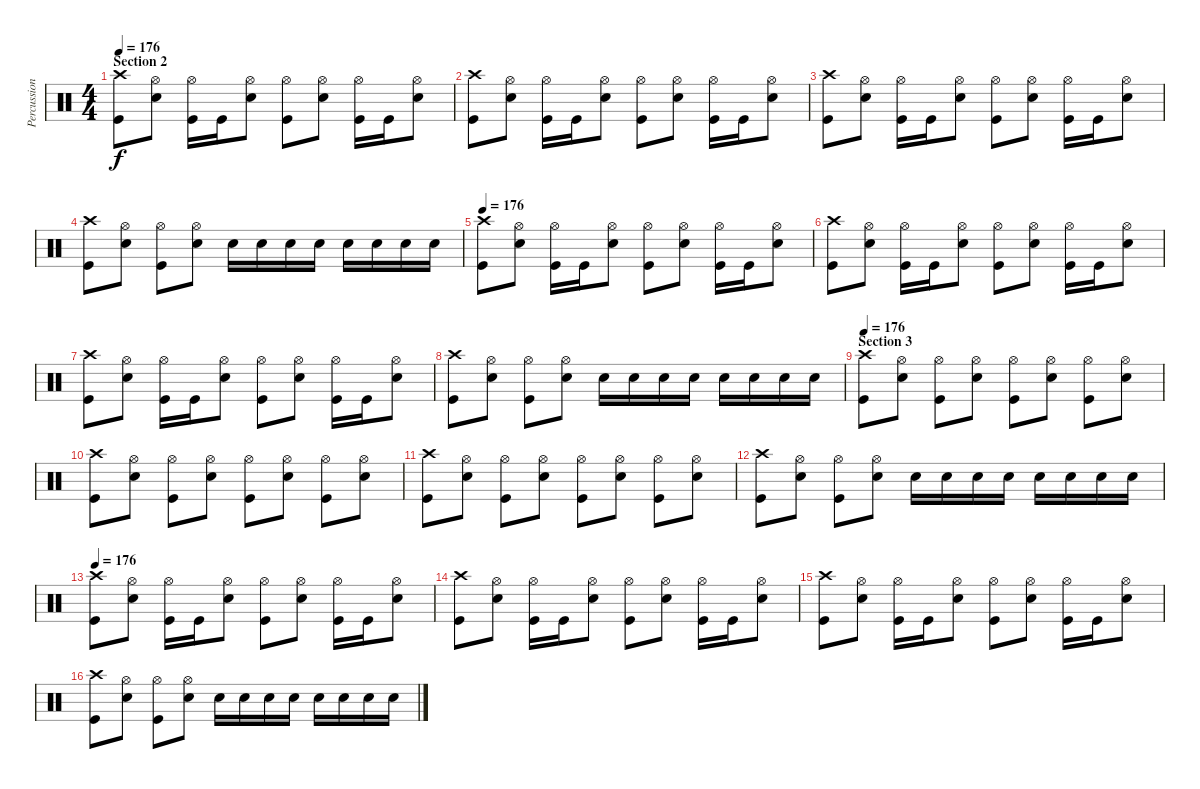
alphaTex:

\track ("Percussions" "Percussion") {instrument percussion}
\staff {score}
\articulation defaults
\ts (4 4)
\section ("" "Section 2")
\tempo 176
\clef neutral
\ks c
("Crash high (hit)" "Kick (hit)").8{dy f} ("Hi-Hat (open)" "Electric Snare (hit)").8 ("Hi-Hat (open)" "Kick (hit)").16 "Kick (hit)".16 ("Hi-Hat (open)" "Electric Snare (hit)").8 ("Hi-Hat (open)" "Kick (hit)").8 ("Hi-Hat (open)" "Electric Snare (hit)").8 ("Hi-Hat (open)" "Kick (hit)").16 "Kick (hit)".16 ("Hi-Hat (open)" "Electric Snare (hit)").8 |
("Crash high (hit)" "Kick (hit)").8 ("Hi-Hat (open)" "Electric Snare (hit)").8 ("Hi-Hat (open)" "Kick (hit)").16 "Kick (hit)".16 ("Hi-Hat (open)" "Electric Snare (hit)").8 ("Hi-Hat (open)" "Kick (hit)").8 ("Hi-Hat (open)" "Electric Snare (hit)").8 ("Hi-Hat (open)" "Kick (hit)").16 "Kick (hit)".16 ("Hi-Hat (open)" "Electric Snare (hit)").8 |
("Crash high (hit)" "Kick (hit)").8 ("Hi-Hat (open)" "Electric Snare (hit)").8 ("Hi-Hat (open)" "Kick (hit)").16 "Kick (hit)".16 ("Hi-Hat (open)" "Electric Snare (hit)").8 ("Hi-Hat (open)" "Kick (hit)").8 ("Hi-Hat (open)" "Electric Snare (hit)").8 ("Hi-Hat (open)" "Kick (hit)").16 "Kick (hit)".16 ("Hi-Hat (open)" "Electric Snare (hit)").8 |
("Crash high (hit)" "Kick (hit)").8 ("Hi-Hat (open)" "Electric Snare (hit)").8 ("Hi-Hat (open)" "Kick (hit)").8 ("Hi-Hat (open)" "Electric Snare (hit)").8 "Electric Snare (hit)".16 "Electric Snare (hit)".16 "Electric Snare (hit)".16 "Electric Snare (hit)".16 "Electric Snare (hit)".16 "Electric Snare (hit)".16 "Electric Snare (hit)".16 "Electric Snare (hit)".16 |
\tempo 176
("Crash high (hit)" "Kick (hit)").8 ("Hi-Hat (open)" "Electric Snare (hit)").8 ("Hi-Hat (open)" "Kick (hit)").16 "Kick (hit)".16 ("Hi-Hat (open)" "Electric Snare (hit)").8 ("Hi-Hat (open)" "Kick (hit)").8 ("Hi-Hat (open)" "Electric Snare (hit)").8 ("Hi-Hat (open)" "Kick (hit)").16 "Kick (hit)".16 ("Hi-Hat (open)" "Electric Snare (hit)").8 |
("Crash high (hit)" "Kick (hit)").8 ("Hi-Hat (open)" "Electric Snare (hit)").8 ("Hi-Hat (open)" "Kick (hit)").16 "Kick (hit)".16 ("Hi-Hat (open)" "Electric Snare (hit)").8 ("Hi-Hat (open)" "Kick (hit)").8 ("Hi-Hat (open)" "Electric Snare (hit)").8 ("Hi-Hat (open)" "Kick (hit)").16 "Kick (hit)".16 ("Hi-Hat (open)" "Electric Snare (hit)").8 |
("Crash high (hit)" "Kick (hit)").8 ("Hi-Hat (open)" "Electric Snare (hit)").8 ("Hi-Hat (open)" "Kick (hit)").16 "Kick (hit)".16 ("Hi-Hat (open)" "Electric Snare (hit)").8 ("Hi-Hat (open)" "Kick (hit)").8 ("Hi-Hat (open)" "Electric Snare (hit)").8 ("Hi-Hat (open)" "Kick (hit)").16 "Kick (hit)".16 ("Hi-Hat (open)" "Electric Snare (hit)").8 |
("Crash high (hit)" "Kick (hit)").8 ("Hi-Hat (open)" "Electric Snare (hit)").8 ("Hi-Hat (open)" "Kick (hit)").8 ("Hi-Hat (open)" "Electric Snare (hit)").8 "Electric Snare (hit)".16 "Electric Snare (hit)".16 "Electric Snare (hit)".16 "Electric Snare (hit)".16 "Electric Snare (hit)".16 "Electric Snare (hit)".16 "Electric Snare (hit)".16 "Electric Snare (hit)".16 |
\section ("" "Section 3")
\tempo 176
("Crash high (hit)" "Kick (hit)").8 ("Hi-Hat (open)" "Electric Snare (hit)").8 ("Hi-Hat (open)" "Kick (hit)").8 ("Hi-Hat (open)" "Electric Snare (hit)").8 ("Hi-Hat (open)" "Kick (hit)").8 ("Hi-Hat (open)" "Electric Snare (hit)").8 ("Hi-Hat (open)" "Kick (hit)").8 ("Hi-Hat (open)" "Electric Snare (hit)").8 |
("Crash high (hit)" "Kick (hit)").8 ("Hi-Hat (open)" "Electric Snare (hit)").8 ("Hi-Hat (open)" "Kick (hit)").8 ("Hi-Hat (open)" "Electric Snare (hit)").8 ("Hi-Hat (open)" "Kick (hit)").8 ("Hi-Hat (open)" "Electric Snare (hit)").8 ("Hi-Hat (open)" "Kick (hit)").8 ("Hi-Hat (open)" "Electric Snare (hit)").8 |
("Crash high (hit)" "Kick (hit)").8 ("Hi-Hat (open)" "Electric Snare (hit)").8 ("Hi-Hat (open)" "Kick (hit)").8 ("Hi-Hat (open)" "Electric Snare (hit)").8 ("Hi-Hat (open)" "Kick (hit)").8 ("Hi-Hat (open)" "Electric Snare (hit)").8 ("Hi-Hat (open)" "Kick (hit)").8 ("Hi-Hat (open)" "Electric Snare (hit)").8 |
("Crash high (hit)" "Kick (hit)").8 ("Hi-Hat (open)" "Electric Snare (hit)").8 ("Hi-Hat (open)" "Kick (hit)").8 ("Hi-Hat (open)" "Electric Snare (hit)").8 "Electric Snare (hit)".16 "Electric Snare (hit)".16 "Electric Snare (hit)".16 "Electric Snare (hit)".16 "Electric Snare (hit)".16 "Electric Snare (hit)".16 "Electric Snare (hit)".16 "Electric Snare (hit)".16 |
\tempo 176
("Crash high (hit)" "Kick (hit)").8 ("Hi-Hat (open)" "Electric Snare (hit)").8 ("Hi-Hat (open)" "Kick (hit)").16 "Kick (hit)".16 ("Hi-Hat (open)" "Electric Snare (hit)").8 ("Hi-Hat (open)" "Kick (hit)").8 ("Hi-Hat (open)" "Electric Snare (hit)").8 ("Hi-Hat (open)" "Kick (hit)").16 "Kick (hit)".16 ("Hi-Hat (open)" "Electric Snare (hit)").8 |
("Crash high (hit)" "Kick (hit)").8 ("Hi-Hat (open)" "Electric Snare (hit)").8 ("Hi-Hat (open)" "Kick (hit)").16 "Kick (hit)".16 ("Hi-Hat (open)" "Electric Snare (hit)").8 ("Hi-Hat (open)" "Kick (hit)").8 ("Hi-Hat (open)" "Electric Snare (hit)").8 ("Hi-Hat (open)" "Kick (hit)").16 "Kick (hit)".16 ("Hi-Hat (open)" "Electric Snare (hit)").8 |
("Crash high (hit)" "Kick (hit)").8 ("Hi-Hat (open)" "Electric Snare (hit)").8 ("Hi-Hat (open)" "Kick (hit)").16 "Kick (hit)".16 ("Hi-Hat (open)" "Electric Snare (hit)").8 ("Hi-Hat (open)" "Kick (hit)").8 ("Hi-Hat (open)" "Electric Snare (hit)").8 ("Hi-Hat (open)" "Kick (hit)").16 "Kick (hit)".16 ("Hi-Hat (open)" "Electric Snare (hit)").8 |
("Crash high (hit)" "Kick (hit)").8 ("Hi-Hat (open)" "Electric Snare (hit)").8 ("Hi-Hat (open)" "Kick (hit)").8 ("Hi-Hat (open)" "Electric Snare (hit)").8 "Electric Snare (hit)".16 "Electric Snare (hit)".16 "Electric Snare (hit)".16 "Electric Snare (hit)".16 "Electric Snare (hit)".16 "Electric Snare (hit)".16 "Electric Snare (hit)".16 "Electric Snare (hit)".16
